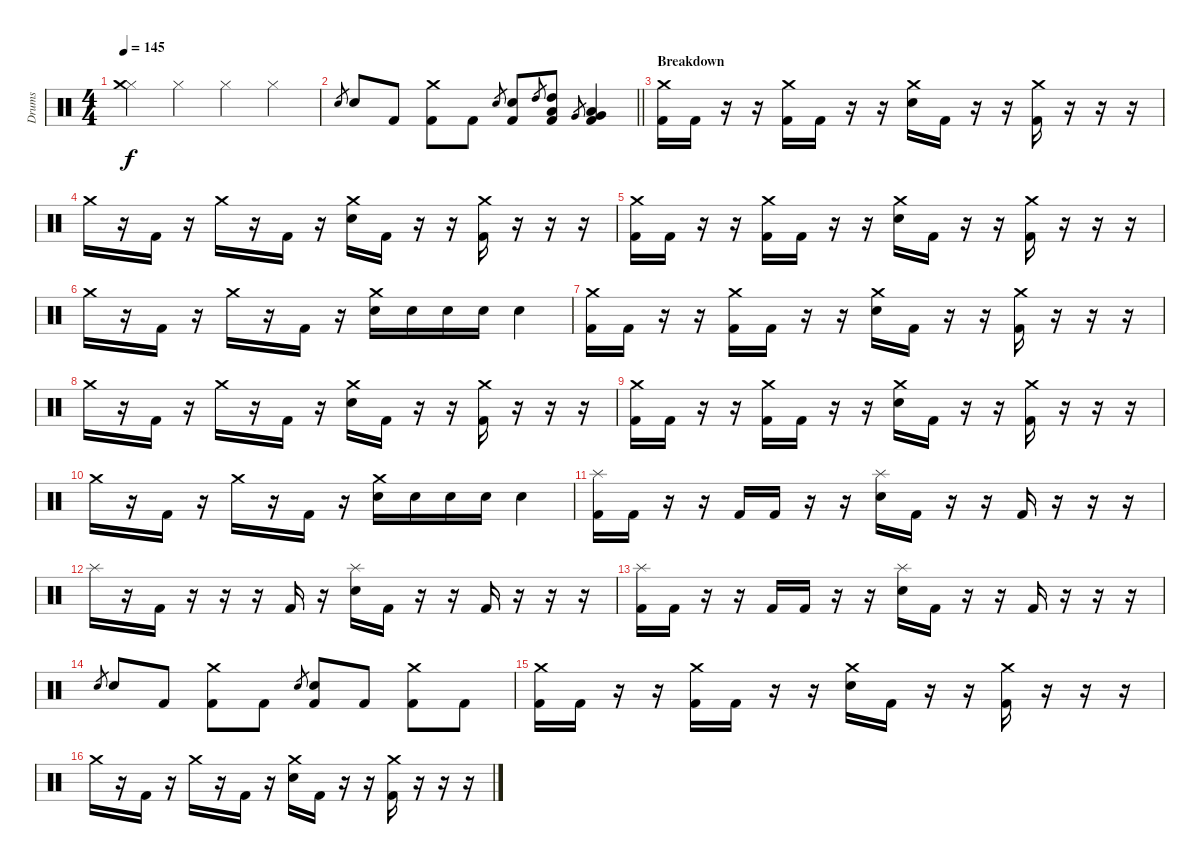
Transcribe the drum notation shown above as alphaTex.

\track ("Drums" "Drums") {instrument percussion}
\staff {score}
\articulation defaults
\ts (4 4)
\tempo 145
\clef neutral
\ks c
("Hi-Hat (closed)" "Crash medium (hit)").4{dy f} "Hi-Hat (closed)".4 "Hi-Hat (closed)".4 "Hi-Hat (closed)".4 |
\barLineRight lightlight "Electric Snare (hit)".8{gr} "Electric Snare (hit)".8 "Kick (hit) 2".8
("Crash medium (hit)" "Kick (hit) 2").8 "Kick (hit) 2".8 "Electric Snare (hit)".8{gr} ("Electric Snare (hit)" "Kick (hit) 2").8 "High Tom (hit)".8{gr} ("Low Tom (hit)" "High Tom (hit)" "Kick (hit) 2").8 "Very Low Tom (hit)".8{gr} ("Low Tom (hit)" "Very Low Tom (hit)" "Kick (hit) 2").4 |
\section ("" "Breakdown")
("Crash medium (hit)" "Kick (hit) 2").16 "Kick (hit) 2".16 r.16 r.16 ("Crash medium (hit)" "Kick (hit) 2").16 "Kick (hit) 2".16 r.16 r.16 ("Crash medium (hit)" "Electric Snare (hit)").16 "Kick (hit) 2".16 r.16 r.16 ("Crash medium (hit)" "Kick (hit) 2").16 r.16 r.16 r.16 |
"Crash medium (hit)".16 r.16 "Kick (hit) 2".16 r.16 "Crash medium (hit)".16 r.16 "Kick (hit) 2".16 r.16 ("Crash medium (hit)" "Electric Snare (hit)").16 "Kick (hit) 2".16 r.16 r.16 ("Crash medium (hit)" "Kick (hit) 2").16 r.16 r.16 r.16 |
("Crash medium (hit)" "Kick (hit) 2").16 "Kick (hit) 2".16 r.16 r.16 ("Crash medium (hit)" "Kick (hit) 2").16 "Kick (hit) 2".16 r.16 r.16 ("Crash medium (hit)" "Electric Snare (hit)").16 "Kick (hit) 2".16 r.16 r.16 ("Crash medium (hit)" "Kick (hit) 2").16 r.16 r.16 r.16 |
"Crash medium (hit)".16 r.16 "Kick (hit) 2".16 r.16 "Crash medium (hit)".16 r.16 "Kick (hit) 2".16 r.16 ("Crash medium (hit)" "Electric Snare (hit)").16 "Electric Snare (hit)".16 "Electric Snare (hit)".16 "Electric Snare (hit)".16 "Electric Snare (hit)".4 |
("Crash medium (hit)" "Kick (hit) 2").16 "Kick (hit) 2".16 r.16 r.16 ("Crash medium (hit)" "Kick (hit) 2").16 "Kick (hit) 2".16 r.16 r.16 ("Crash medium (hit)" "Electric Snare (hit)").16 "Kick (hit) 2".16 r.16 r.16 ("Crash medium (hit)" "Kick (hit) 2").16 r.16 r.16 r.16 |
"Crash medium (hit)".16 r.16 "Kick (hit) 2".16 r.16 "Crash medium (hit)".16 r.16 "Kick (hit) 2".16 r.16 ("Crash medium (hit)" "Electric Snare (hit)").16 "Kick (hit) 2".16 r.16 r.16 ("Crash medium (hit)" "Kick (hit) 2").16 r.16 r.16 r.16 |
("Crash medium (hit)" "Kick (hit) 2").16 "Kick (hit) 2".16 r.16 r.16 ("Crash medium (hit)" "Kick (hit) 2").16 "Kick (hit) 2".16 r.16 r.16 ("Crash medium (hit)" "Electric Snare (hit)").16 "Kick (hit) 2".16 r.16 r.16 ("Crash medium (hit)" "Kick (hit) 2").16 r.16 r.16 r.16 |
"Crash medium (hit)".16 r.16 "Kick (hit) 2".16 r.16 "Crash medium (hit)".16 r.16 "Kick (hit) 2".16 r.16 ("Crash medium (hit)" "Electric Snare (hit)").16 "Electric Snare (hit)".16 "Electric Snare (hit)".16 "Electric Snare (hit)".16 "Electric Snare (hit)".4 |
("Splash (hit)" "Kick (hit) 2").16 "Kick (hit) 2".16 r.16 r.16 "Kick (hit) 2".16 "Kick (hit) 2".16 r.16 r.16 ("Splash (hit)" "Electric Snare (hit)").16 "Kick (hit) 2".16 r.16 r.16 "Kick (hit) 2".16 r.16 r.16 r.16 |
"Splash (hit)".16 r.16 "Kick (hit) 2".16 r.16 r.16 r.16 "Kick (hit) 2".16 r.16 ("Splash (hit)" "Electric Snare (hit)").16 "Kick (hit) 2".16 r.16 r.16 "Kick (hit) 2".16 r.16 r.16 r.16 |
("Splash (hit)" "Kick (hit) 2").16 "Kick (hit) 2".16 r.16 r.16 "Kick (hit) 2".16 "Kick (hit) 2".16 r.16 r.16 ("Splash (hit)" "Electric Snare (hit)").16 "Kick (hit) 2".16 r.16 r.16 "Kick (hit) 2".16 r.16 r.16 r.16 |
"Electric Snare (hit)".8{gr} "Electric Snare (hit)".8 "Kick (hit) 2".8 ("Crash medium (hit)" "Kick (hit) 2").8 "Kick (hit) 2".8 "Electric Snare (hit)".8{gr} ("Electric Snare (hit)" "Kick (hit) 2").8 "Kick (hit) 2".8 ("Crash medium (hit)" "Kick (hit) 2").8 "Kick (hit) 2".8 |
("Crash medium (hit)" "Kick (hit) 2").16 "Kick (hit) 2".16 r.16 r.16 ("Crash medium (hit)" "Kick (hit) 2").16 "Kick (hit) 2".16 r.16 r.16 ("Crash medium (hit)" "Electric Snare (hit)").16 "Kick (hit) 2".16 r.16 r.16 ("Crash medium (hit)" "Kick (hit) 2").16 r.16 r.16 r.16 |
"Crash medium (hit)".16 r.16 "Kick (hit) 2".16 r.16 "Crash medium (hit)".16 r.16 "Kick (hit) 2".16 r.16 ("Crash medium (hit)" "Electric Snare (hit)").16 "Kick (hit) 2".16 r.16 r.16 ("Crash medium (hit)" "Kick (hit) 2").16 r.16 r.16 r.16
